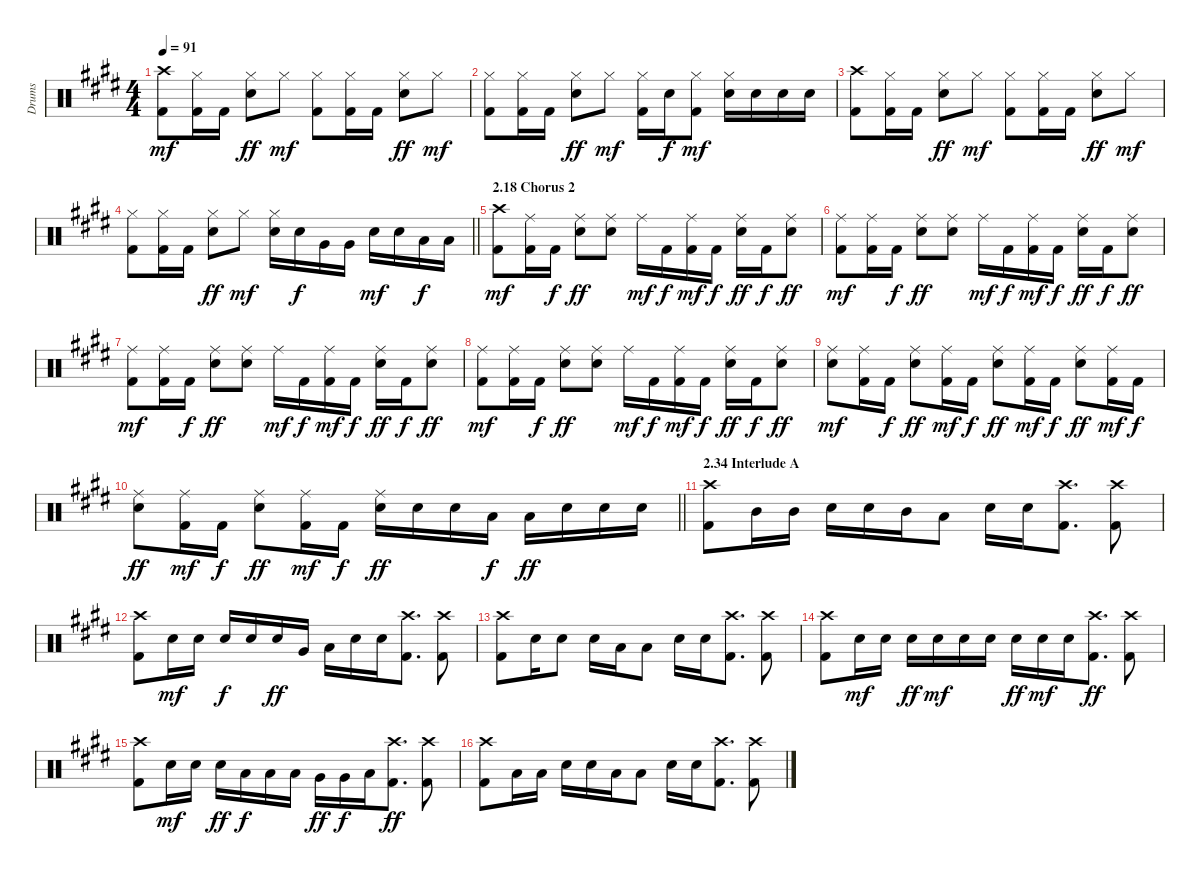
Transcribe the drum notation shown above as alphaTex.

\track ("Drums" "Drums") {instrument percussion}
\staff {score}
\articulation defaults
\ts (4 4)
\tempo 91
\clef neutral
\ks e
("Crash high (hit)" "Kick (hit) 2").8{dy mf} ("Hi-Hat (closed)" "Kick (hit) 2").16 "Kick (hit) 2".16 ("Hi-Hat (closed)" "Snare (hit) 2").8{dy ff} "Hi-Hat (closed)".8{dy mf} ("Hi-Hat (closed)" "Kick (hit) 2").8 ("Hi-Hat (closed)" "Kick (hit) 2").16 "Kick (hit) 2".16 ("Hi-Hat (closed)" "Snare (hit) 2").8{dy ff} "Hi-Hat (closed)".8{dy mf} |
("Hi-Hat (closed)" "Kick (hit) 2").8 ("Hi-Hat (closed)" "Kick (hit) 2").16 "Kick (hit) 2".16 ("Hi-Hat (closed)" "Snare (hit) 2").8{dy ff} "Hi-Hat (closed)".8{dy mf} ("Hi-Hat (closed)" "Kick (hit) 2").16 "Snare (hit) 2".16{dy f} ("Hi-Hat (closed)" "Kick (hit) 2").8{dy mf} ("Hi-Hat (closed)" "Snare (hit) 2").16 "Snare (hit) 2".16 "Snare (hit) 2".16 "Snare (hit) 2".16 |
("Crash high (hit)" "Kick (hit) 2").8 ("Hi-Hat (closed)" "Kick (hit) 2").16 "Kick (hit) 2".16 ("Hi-Hat (closed)" "Snare (hit) 2").8{dy ff} "Hi-Hat (closed)".8{dy mf} ("Hi-Hat (closed)" "Kick (hit) 2").8 ("Hi-Hat (closed)" "Kick (hit) 2").16 "Kick (hit) 2".16 ("Hi-Hat (closed)" "Snare (hit) 2").8{dy ff} "Hi-Hat (closed)".8{dy mf} |
\barLineRight lightlight
("Hi-Hat (closed)" "Kick (hit) 2").8 ("Hi-Hat (closed)" "Kick (hit) 2").16 "Kick (hit) 2".16 ("Hi-Hat (closed)" "Snare (hit) 2").8{dy ff} "Hi-Hat (closed)".8{dy mf} ("Hi-Hat (closed)" "Snare (hit) 2").16 "Snare (hit) 2".16{dy f} "Very Low Tom (hit)".16 "Very Low Tom (hit)".16 "Snare (hit) 2".16{dy mf} "Snare (hit) 2".16 "Low Tom (hit)".16{dy f} "Low Tom (hit)".16 |
\section ("" "2.18 Chorus 2")
("Crash high (hit)" "Kick (hit) 2").8{dy mf} ("Ride (middle)" "Kick (hit) 2").16 "Kick (hit) 2".16{dy f} ("Ride (middle)" "Snare (hit) 2").8{dy ff} ("Ride (middle)" "Snare (hit) 2").8 "Ride (middle)".16{dy mf} "Kick (hit) 2".16{dy f} ("Ride (middle)" "Kick (hit) 2").16{dy mf} "Kick (hit) 2".16{dy f} ("Ride (middle)" "Snare (hit) 2").16{dy ff} "Kick (hit) 2".16{dy f} ("Ride (middle)" "Snare (hit) 2").8{dy ff} |
("Ride (middle)" "Kick (hit) 2").8{dy mf} ("Ride (middle)" "Kick (hit) 2").16 "Kick (hit) 2".16{dy f} ("Ride (middle)" "Snare (hit) 2").8{dy ff} ("Ride (middle)" "Snare (hit) 2").8 "Ride (middle)".16{dy mf} "Kick (hit) 2".16{dy f} ("Ride (middle)" "Kick (hit) 2").16{dy mf} "Kick (hit) 2".16{dy f} ("Ride (middle)" "Snare (hit) 2").16{dy ff} "Kick (hit) 2".16{dy f} ("Ride (middle)" "Snare (hit) 2").8{dy ff} |
("Ride (middle)" "Kick (hit) 2").8{dy mf} ("Ride (middle)" "Kick (hit) 2").16 "Kick (hit) 2".16{dy f} ("Ride (middle)" "Snare (hit) 2").8{dy ff} ("Ride (middle)" "Snare (hit) 2").8 "Ride (middle)".16{dy mf} "Kick (hit) 2".16{dy f} ("Ride (middle)" "Kick (hit) 2").16{dy mf} "Kick (hit) 2".16{dy f} ("Ride (middle)" "Snare (hit) 2").16{dy ff} "Kick (hit) 2".16{dy f} ("Ride (middle)" "Snare (hit) 2").8{dy ff} |
("Ride (middle)" "Kick (hit) 2").8{dy mf} ("Ride (middle)" "Kick (hit) 2").16 "Kick (hit) 2".16{dy f} ("Ride (middle)" "Snare (hit) 2").8{dy ff} ("Ride (middle)" "Snare (hit) 2").8 "Ride (middle)".16{dy mf} "Kick (hit) 2".16{dy f} ("Ride (middle)" "Kick (hit) 2").16{dy mf} "Kick (hit) 2".16{dy f} ("Ride (middle)" "Snare (hit) 2").16{dy ff} "Kick (hit) 2".16{dy f} ("Ride (middle)" "Snare (hit) 2").8{dy ff} |
("Ride (middle)" "Snare (hit) 2").8{dy mf} ("Ride (middle)" "Kick (hit) 2").16 "Kick (hit) 2".16{dy f} ("Ride (middle)" "Snare (hit) 2").8{dy ff} ("Ride (middle)" "Kick (hit) 2").16{dy mf} "Kick (hit) 2".16{dy f} ("Ride (middle)" "Snare (hit) 2").8{dy ff} ("Ride (middle)" "Kick (hit) 2").16{dy mf} "Kick (hit) 2".16{dy f} ("Ride (middle)" "Snare (hit) 2").8{dy ff} ("Ride (middle)" "Kick (hit) 2").16{dy mf} "Kick (hit) 2".16{dy f} |
\barLineRight lightlight
("Ride (middle)" "Snare (hit) 2").8{dy ff} ("Ride (middle)" "Kick (hit) 2").16{dy mf} "Kick (hit) 2".16{dy f} ("Ride (middle)" "Snare (hit) 2").8{dy ff} ("Ride (middle)" "Kick (hit) 2").16{dy mf} "Kick (hit) 2".16{dy f} ("Ride (middle)" "Snare (hit) 2").16{dy ff} "Snare (hit) 2".16 "Snare (hit) 2".16 "Low Tom (hit)".16{dy f} "Low Tom (hit)".16{dy ff} "Snare (hit) 2".16 "Snare (hit) 2".16 "Snare (hit) 2".16 |
\section ("" "2.34 Interlude A")
("Crash high (hit)" "Kick (hit) 2").8 "Mid Tom (hit)".16 "Mid Tom (hit)".16 "Snare (hit) 2".16 "Snare (hit) 2".16 "Mid Tom (hit)".16 "Low Tom (hit)".8 "Snare (hit) 2".16 "Snare (hit) 2".16 ("Crash high (hit)" "Kick (hit) 2").8{d} ("Crash high (hit)" "Kick (hit) 2").8 |
("Crash high (hit)" "Kick (hit) 2").8 "Snare (hit) 2".16{dy mf} "Snare (hit) 2".16 "Snare (hit) 2".16{dy f} "Snare (hit) 2".16 "Snare (hit) 2".16{dy ff} "Very Low Tom (hit)".16 "Low Floor Tom (hit)".16 "Snare (hit) 2".16 "Snare (hit) 2".16 ("Crash high (hit)" "Kick (hit) 2").8{d} ("Crash high (hit)" "Kick (hit) 2").8 |
("Crash high (hit)" "Kick (hit) 2").8 "Snare (hit) 2".16 "Snare (hit) 2".8 "Snare (hit) 2".16 "Low Tom (hit)".16 "Low Tom (hit)".8 "Snare (hit) 2".16 "Snare (hit) 2".16 ("Crash high (hit)" "Kick (hit) 2").8{d} ("Crash high (hit)" "Kick (hit) 2").8 |
("Crash high (hit)" "Kick (hit) 2").8 "Snare (hit) 2".16{dy mf} "Snare (hit) 2".16 "Snare (hit) 2".16{dy ff} "Snare (hit) 2".16{dy mf} "Snare (hit) 2".16 "Snare (hit) 2".16 "Snare (hit) 2".16{dy ff} "Snare (hit) 2".16{dy mf} "Snare (hit) 2".16 ("Crash high (hit)" "Kick (hit) 2").8{d dy ff} ("Crash high (hit)" "Kick (hit) 2").8 |
("Crash high (hit)" "Kick (hit) 2").8 "Snare (hit) 2".16{dy mf} "Snare (hit) 2".16 "Snare (hit) 2".16{dy ff} "Low Tom (hit)".16{dy f} "Low Tom (hit)".16 "Low Tom (hit)".16 "Very Low Tom (hit)".16{dy ff} "Very Low Tom (hit)".16{dy f} "Low Floor Tom (hit)".16 ("Crash high (hit)" "Kick (hit) 2").8{d dy ff} ("Crash high (hit)" "Kick (hit) 2").8 |
("Crash high (hit)" "Kick (hit) 2").8 "Low Tom (hit)".16 "Low Tom (hit)".16 "Snare (hit) 2".16 "Snare (hit) 2".16 "Low Tom (hit)".16 "Low Tom (hit)".8 "Snare (hit) 2".16 "Snare (hit) 2".16 ("Crash high (hit)" "Kick (hit) 2").8{d} ("Crash high (hit)" "Kick (hit) 2").8
